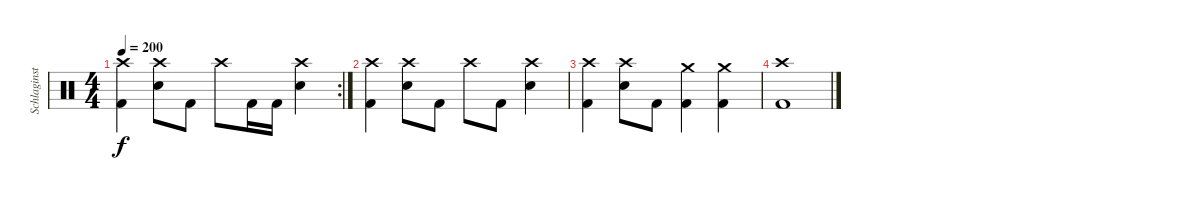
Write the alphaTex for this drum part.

\track ("Schlaginstrumente - Auswahl" "Schlaginst") {instrument percussion}
\staff {score}
\articulation defaults
\rc 2
\ts (4 4)
\tempo 200
\clef neutral
\ks c
("Crash high (hit)" "Kick (hit) 2").4{dy f} ("Crash high (hit)" "Electric Snare (hit)").8 "Kick (hit) 2".8 "Crash high (hit)".8 "Kick (hit) 2".16 "Kick (hit) 2".16 ("Crash high (hit)" "Electric Snare (hit)").4 |
("Crash high (hit)" "Kick (hit) 2").4 ("Crash high (hit)" "Electric Snare (hit)").8 "Kick (hit) 2".8 "Crash high (hit)".8 "Kick (hit) 2".8 ("Crash high (hit)" "Electric Snare (hit)").4 |
("Crash high (hit)" "Kick (hit) 2").4 ("Crash high (hit)" "Electric Snare (hit)").8 "Kick (hit) 2".8 ("Crash medium (hit)" "Kick (hit) 2").4 ("Crash medium (hit)" "Kick (hit) 2").4 |
("Crash high (hit)" "Kick (hit) 2").1
